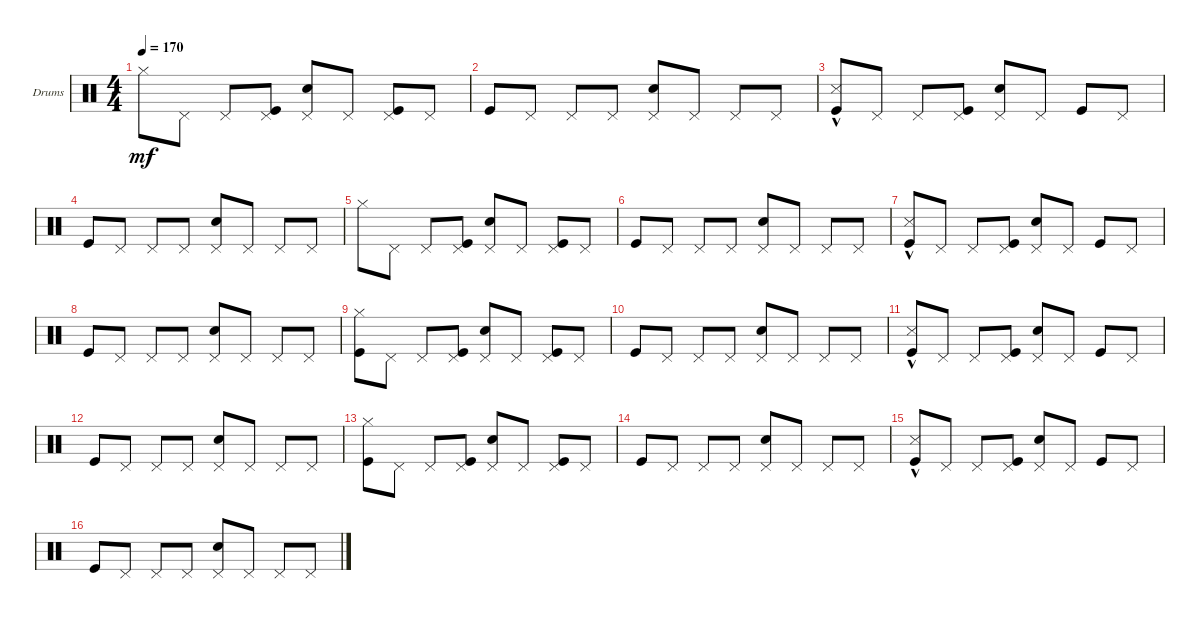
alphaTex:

\defaultSystemsLayout 4
\bracketExtendMode groupsimilarinstruments
\firstSystemTrackNameOrientation horizontal
\otherSystemsTrackNameOrientation horizontal
\track ("Drumkit" "Drums") {instrument percussion}
\staff {score}
\articulation defaults
\ts (4 4)
\tempo 170
\clef neutral
\ks c "Hi-Hat (closed)".8{dy mf} "Pedal Hi-Hat (hit)".8 "Pedal Hi-Hat (hit)".8
("Pedal Hi-Hat (hit)" "Kick (hit)").8 ("Pedal Hi-Hat (hit)" "Snare (hit) 2").8 "Pedal Hi-Hat (hit)".8 ("Pedal Hi-Hat (hit)" "Kick (hit)").8 "Pedal Hi-Hat (hit)".8 |
"Kick (hit)".8 "Pedal Hi-Hat (hit)".8 "Pedal Hi-Hat (hit)".8 "Pedal Hi-Hat (hit)".8 ("Pedal Hi-Hat (hit)" "Snare (hit) 2").8 "Pedal Hi-Hat (hit)".8 "Pedal Hi-Hat (hit)".8 "Pedal Hi-Hat (hit)".8 |
("Snare (side stick) 3"{hac} "Kick (hit)").8 "Pedal Hi-Hat (hit)".8 "Pedal Hi-Hat (hit)".8 ("Pedal Hi-Hat (hit)" "Kick (hit)").8 ("Pedal Hi-Hat (hit)" "Snare (hit) 2").8 "Pedal Hi-Hat (hit)".8 "Kick (hit)".8 "Pedal Hi-Hat (hit)".8 |
"Kick (hit)".8 "Pedal Hi-Hat (hit)".8 "Pedal Hi-Hat (hit)".8 "Pedal Hi-Hat (hit)".8 ("Pedal Hi-Hat (hit)" "Snare (hit) 2").8 "Pedal Hi-Hat (hit)".8 "Pedal Hi-Hat (hit)".8 "Pedal Hi-Hat (hit)".8 |
"Hi-Hat (closed)".8 "Pedal Hi-Hat (hit)".8 "Pedal Hi-Hat (hit)".8 ("Pedal Hi-Hat (hit)" "Kick (hit)").8 ("Pedal Hi-Hat (hit)" "Snare (hit) 2").8 "Pedal Hi-Hat (hit)".8 ("Pedal Hi-Hat (hit)" "Kick (hit)").8 "Pedal Hi-Hat (hit)".8 |
"Kick (hit)".8 "Pedal Hi-Hat (hit)".8 "Pedal Hi-Hat (hit)".8 "Pedal Hi-Hat (hit)".8 ("Pedal Hi-Hat (hit)" "Snare (hit) 2").8 "Pedal Hi-Hat (hit)".8 "Pedal Hi-Hat (hit)".8 "Pedal Hi-Hat (hit)".8 |
("Snare (side stick) 3"{hac} "Kick (hit)").8 "Pedal Hi-Hat (hit)".8 "Pedal Hi-Hat (hit)".8 ("Pedal Hi-Hat (hit)" "Kick (hit)").8 ("Pedal Hi-Hat (hit)" "Snare (hit) 2").8 "Pedal Hi-Hat (hit)".8 "Kick (hit)".8 "Pedal Hi-Hat (hit)".8 |
"Kick (hit)".8 "Pedal Hi-Hat (hit)".8 "Pedal Hi-Hat (hit)".8 "Pedal Hi-Hat (hit)".8 ("Pedal Hi-Hat (hit)" "Snare (hit) 2").8 "Pedal Hi-Hat (hit)".8 "Pedal Hi-Hat (hit)".8 "Pedal Hi-Hat (hit)".8 |
("Hi-Hat (closed)" "Kick (hit)").8 "Pedal Hi-Hat (hit)".8 "Pedal Hi-Hat (hit)".8 ("Pedal Hi-Hat (hit)" "Kick (hit)").8 ("Pedal Hi-Hat (hit)" "Snare (hit) 2").8 "Pedal Hi-Hat (hit)".8 ("Pedal Hi-Hat (hit)" "Kick (hit)").8 "Pedal Hi-Hat (hit)".8 |
"Kick (hit)".8 "Pedal Hi-Hat (hit)".8 "Pedal Hi-Hat (hit)".8 "Pedal Hi-Hat (hit)".8 ("Pedal Hi-Hat (hit)" "Snare (hit) 2").8 "Pedal Hi-Hat (hit)".8 "Pedal Hi-Hat (hit)".8 "Pedal Hi-Hat (hit)".8 |
("Snare (side stick) 3"{hac} "Kick (hit)").8 "Pedal Hi-Hat (hit)".8 "Pedal Hi-Hat (hit)".8 ("Pedal Hi-Hat (hit)" "Kick (hit)").8 ("Pedal Hi-Hat (hit)" "Snare (hit) 2").8 "Pedal Hi-Hat (hit)".8 "Kick (hit)".8 "Pedal Hi-Hat (hit)".8 |
"Kick (hit)".8 "Pedal Hi-Hat (hit)".8 "Pedal Hi-Hat (hit)".8 "Pedal Hi-Hat (hit)".8 ("Pedal Hi-Hat (hit)" "Snare (hit) 2").8 "Pedal Hi-Hat (hit)".8 "Pedal Hi-Hat (hit)".8 "Pedal Hi-Hat (hit)".8 |
("Hi-Hat (closed)" "Kick (hit)").8 "Pedal Hi-Hat (hit)".8 "Pedal Hi-Hat (hit)".8 ("Pedal Hi-Hat (hit)" "Kick (hit)").8 ("Pedal Hi-Hat (hit)" "Snare (hit) 2").8 "Pedal Hi-Hat (hit)".8 ("Pedal Hi-Hat (hit)" "Kick (hit)").8 "Pedal Hi-Hat (hit)".8 |
"Kick (hit)".8 "Pedal Hi-Hat (hit)".8 "Pedal Hi-Hat (hit)".8 "Pedal Hi-Hat (hit)".8 ("Pedal Hi-Hat (hit)" "Snare (hit) 2").8 "Pedal Hi-Hat (hit)".8 "Pedal Hi-Hat (hit)".8 "Pedal Hi-Hat (hit)".8 |
("Snare (side stick) 3"{hac} "Kick (hit)").8 "Pedal Hi-Hat (hit)".8 "Pedal Hi-Hat (hit)".8 ("Pedal Hi-Hat (hit)" "Kick (hit)").8 ("Pedal Hi-Hat (hit)" "Snare (hit) 2").8 "Pedal Hi-Hat (hit)".8 "Kick (hit)".8 "Pedal Hi-Hat (hit)".8 |
"Kick (hit)".8 "Pedal Hi-Hat (hit)".8 "Pedal Hi-Hat (hit)".8 "Pedal Hi-Hat (hit)".8 ("Pedal Hi-Hat (hit)" "Snare (hit) 2").8 "Pedal Hi-Hat (hit)".8 "Pedal Hi-Hat (hit)".8 "Pedal Hi-Hat (hit)".8
